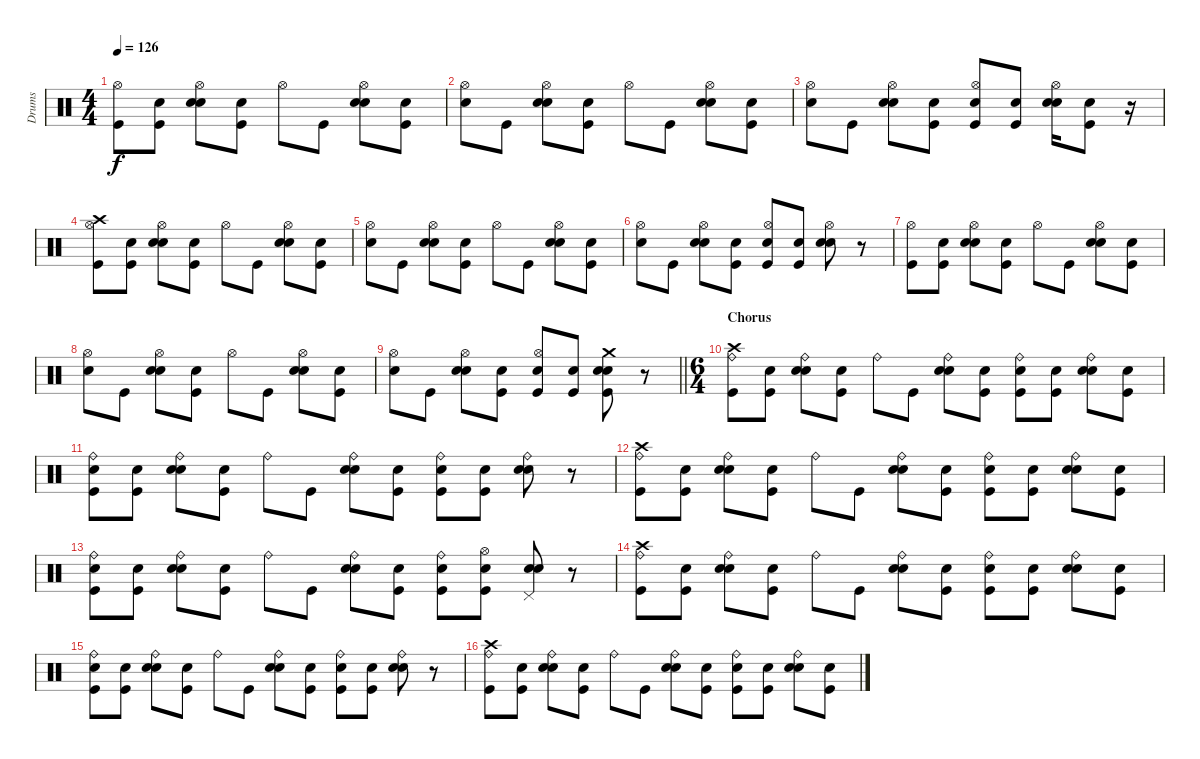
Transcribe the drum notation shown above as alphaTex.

\track ("Drums" "Drums") {instrument percussion}
\staff {score}
\articulation defaults
\ts (4 4)
\tempo 126
\clef neutral
\ks c
("Kick (hit)" "Hi-Hat (open)").8{dy f} ("Snare (hit)" "Kick (hit)").8 ("Snare (hit)" "Electric Snare (hit)" "Hi-Hat (open)").8 ("Snare (hit)" "Kick (hit)").8 "Hi-Hat (open)".8 "Kick (hit)".8 ("Snare (hit)" "Hi-Hat (open)" "Electric Snare (hit)").8 ("Snare (hit)" "Kick (hit)").8 |
("Snare (hit)" "Hi-Hat (open)").8 "Kick (hit)".8 ("Snare (hit)" "Electric Snare (hit)" "Hi-Hat (open)").8 ("Snare (hit)" "Kick (hit)").8 "Hi-Hat (open)".8 "Kick (hit)".8 ("Snare (hit)" "Hi-Hat (open)" "Electric Snare (hit)").8 ("Snare (hit)" "Kick (hit)").8 |
("Snare (hit)" "Hi-Hat (open)").8 "Kick (hit)".8 ("Snare (hit)" "Electric Snare (hit)" "Hi-Hat (open)").8 ("Snare (hit)" "Kick (hit)").8 ("Snare (hit)" "Kick (hit)" "Hi-Hat (open)").8 ("Snare (hit)" "Kick (hit)").8 ("Snare (hit)" "Hi-Hat (open)" "Electric Snare (hit)").16 ("Snare (hit)" "Kick (hit)").8 r.16 |
("Kick (hit)" "Hi-Hat (open)" "Crash high (hit)").8 ("Snare (hit)" "Kick (hit)").8 ("Snare (hit)" "Electric Snare (hit)" "Hi-Hat (open)").8 ("Snare (hit)" "Kick (hit)").8 "Hi-Hat (open)".8 "Kick (hit)".8 ("Snare (hit)" "Hi-Hat (open)" "Electric Snare (hit)").8 ("Snare (hit)" "Kick (hit)").8 |
("Snare (hit)" "Hi-Hat (open)").8 "Kick (hit)".8 ("Snare (hit)" "Electric Snare (hit)" "Hi-Hat (open)").8 ("Snare (hit)" "Kick (hit)").8 "Hi-Hat (open)".8 "Kick (hit)".8 ("Snare (hit)" "Electric Snare (hit)" "Hi-Hat (open)").8 ("Snare (hit)" "Kick (hit)").8 |
("Snare (hit)" "Hi-Hat (open)").8 "Kick (hit)".8 ("Snare (hit)" "Electric Snare (hit)" "Hi-Hat (open)").8 ("Snare (hit)" "Kick (hit)").8 ("Snare (hit)" "Hi-Hat (open)" "Kick (hit)").8 ("Snare (hit)" "Kick (hit)").8 ("Snare (hit)" "Hi-Hat (open)" "Electric Snare (hit)").8 r.8 |
("Kick (hit)" "Hi-Hat (open)").8 ("Snare (hit)" "Kick (hit)").8 ("Snare (hit)" "Electric Snare (hit)" "Hi-Hat (open)").8 ("Snare (hit)" "Kick (hit)").8 "Hi-Hat (open)".8 "Kick (hit)".8 ("Snare (hit)" "Hi-Hat (open)" "Electric Snare (hit)").8 ("Snare (hit)" "Kick (hit)").8 |
("Snare (hit)" "Hi-Hat (open)").8 "Kick (hit)".8 ("Snare (hit)" "Electric Snare (hit)" "Hi-Hat (open)").8 ("Snare (hit)" "Kick (hit)").8 "Hi-Hat (open)".8 "Kick (hit)".8 ("Snare (hit)" "Electric Snare (hit)" "Hi-Hat (open)").8 ("Snare (hit)" "Kick (hit)").8 |
\barLineRight lightlight
("Snare (hit)" "Hi-Hat (open)").8 "Kick (hit)".8 ("Snare (hit)" "Electric Snare (hit)" "Hi-Hat (open)").8 ("Snare (hit)" "Kick (hit)").8 ("Snare (hit)" "Hi-Hat (open)" "Kick (hit)").8 ("Snare (hit)" "Kick (hit)").8 ("Snare (hit)" "Electric Snare (hit)" "Kick (hit)" "Crash medium (hit)").8 r.8 |
\ts (6 4)
\section ("" "Chorus")
("Ride (bell)" "Kick (hit)" "Crash high (hit)").8 ("Snare (hit)" "Kick (hit)").8 ("Snare (hit)" "Ride (bell)" "Electric Snare (hit)").8 ("Snare (hit)" "Kick (hit)").8 "Ride (bell)".8 "Kick (hit)".8 ("Snare (hit)" "Ride (bell)" "Electric Snare (hit)").8 ("Snare (hit)" "Kick (hit)").8 ("Snare (hit)" "Kick (hit)" "Ride (bell)").8 ("Snare (hit)" "Kick (hit)").8 ("Snare (hit)" "Ride (bell)" "Electric Snare (hit)").8 ("Snare (hit)" "Kick (hit)").8 |
("Snare (hit)" "Ride (bell)" "Kick (hit)").8 ("Snare (hit)" "Kick (hit)").8 ("Snare (hit)" "Electric Snare (hit)" "Ride (bell)").8 ("Snare (hit)" "Kick (hit)").8 "Ride (bell)".8 "Kick (hit)".8 ("Snare (hit)" "Ride (bell)" "Electric Snare (hit)").8 ("Snare (hit)" "Kick (hit)").8 ("Snare (hit)" "Kick (hit)" "Ride (bell)").8 ("Snare (hit)" "Kick (hit)").8 ("Snare (hit)" "Ride (bell)" "Electric Snare (hit)").8 r.8 |
("Ride (bell)" "Kick (hit)" "Crash high (hit)").8 ("Snare (hit)" "Kick (hit)").8 ("Snare (hit)" "Electric Snare (hit)" "Ride (bell)").8 ("Snare (hit)" "Kick (hit)").8 "Ride (bell)".8 "Kick (hit)".8 ("Snare (hit)" "Electric Snare (hit)" "Ride (bell)").8 ("Snare (hit)" "Kick (hit)").8 ("Snare (hit)" "Ride (bell)" "Kick (hit)").8 ("Snare (hit)" "Kick (hit)").8 ("Snare (hit)" "Electric Snare (hit)" "Ride (bell)").8 ("Snare (hit)" "Kick (hit)").8 |
("Snare (hit)" "Ride (bell)" "Kick (hit)").8 ("Snare (hit)" "Kick (hit)").8 ("Snare (hit)" "Electric Snare (hit)" "Ride (bell)").8 ("Snare (hit)" "Kick (hit)").8 "Ride (bell)".8 "Kick (hit)".8 ("Snare (hit)" "Electric Snare (hit)" "Ride (bell)").8 ("Snare (hit)" "Kick (hit)").8 ("Snare (hit)" "Kick (hit)" "Ride (bell)").8 ("Snare (hit)" "Kick (hit)" "Hi-Hat (open)").8 ("Snare (hit)" "Electric Snare (hit)" "Pedal Hi-Hat (hit)").8 r.8 |
("Ride (bell)" "Crash high (hit)" "Kick (hit)").8 ("Snare (hit)" "Kick (hit)").8 ("Snare (hit)" "Electric Snare (hit)" "Ride (bell)").8 ("Snare (hit)" "Kick (hit)").8 "Ride (bell)".8 "Kick (hit)".8 ("Snare (hit)" "Ride (bell)" "Electric Snare (hit)").8 ("Snare (hit)" "Kick (hit)").8 ("Snare (hit)" "Kick (hit)" "Ride (bell)").8 ("Snare (hit)" "Kick (hit)").8 ("Snare (hit)" "Ride (bell)" "Electric Snare (hit)").8 ("Snare (hit)" "Kick (hit)").8 |
("Snare (hit)" "Ride (bell)" "Kick (hit)").8 ("Snare (hit)" "Kick (hit)").8 ("Snare (hit)" "Electric Snare (hit)" "Ride (bell)").8 ("Snare (hit)" "Kick (hit)").8 "Ride (bell)".8 "Kick (hit)".8 ("Snare (hit)" "Ride (bell)" "Electric Snare (hit)").8 ("Snare (hit)" "Kick (hit)").8 ("Snare (hit)" "Kick (hit)" "Ride (bell)").8 ("Snare (hit)" "Kick (hit)").8 ("Snare (hit)" "Ride (bell)" "Electric Snare (hit)").8 r.8 |
("Kick (hit)" "Ride (bell)" "Crash high (hit)").8 ("Snare (hit)" "Kick (hit)").8 ("Snare (hit)" "Ride (bell)" "Electric Snare (hit)").8 ("Snare (hit)" "Kick (hit)").8 "Ride (bell)".8 "Kick (hit)".8 ("Snare (hit)" "Electric Snare (hit)" "Ride (bell)").8 ("Snare (hit)" "Kick (hit)").8 ("Snare (hit)" "Ride (bell)" "Kick (hit)").8 ("Snare (hit)" "Kick (hit)").8 ("Snare (hit)" "Ride (bell)" "Electric Snare (hit)").8 ("Snare (hit)" "Kick (hit)").8
